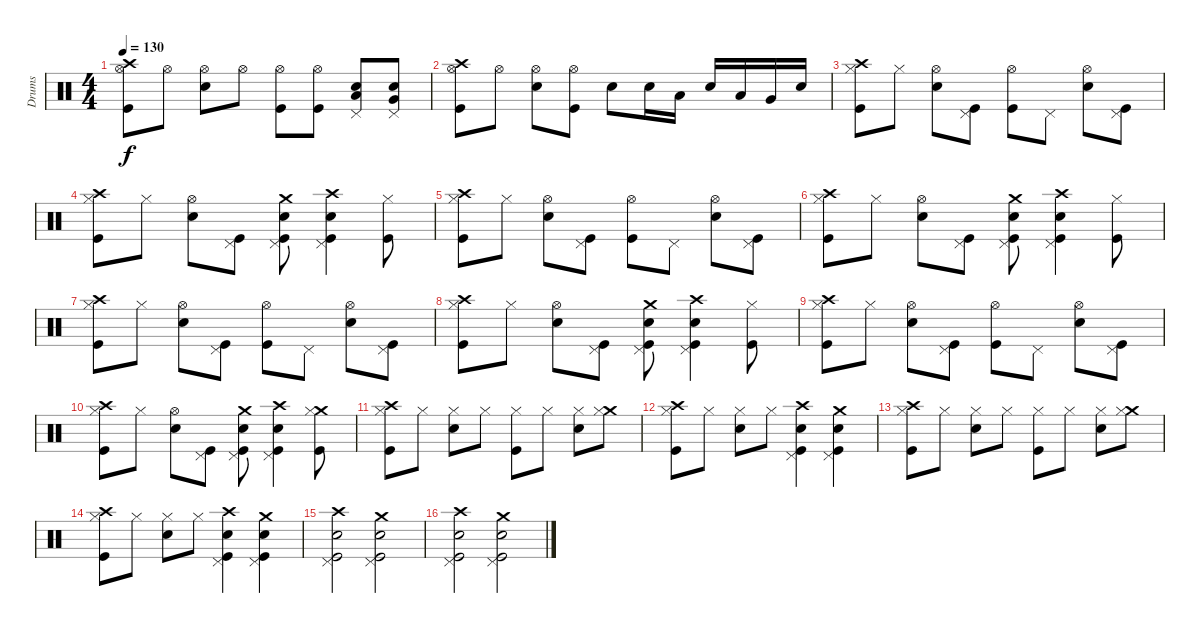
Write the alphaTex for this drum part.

\track ("Drums" "Drums") {instrument percussion}
\staff {score}
\articulation defaults
\ts (4 4)
\tempo 130
\clef neutral
\ks c
("Crash high (hit)" "Hi-Hat (open)" "Kick (hit)").8{dy f} "Hi-Hat (open)".8 ("Hi-Hat (open)" "Electric Snare (hit)").8 "Hi-Hat (open)".8 ("Hi-Hat (open)" "Kick (hit)").8 ("Hi-Hat (open)" "Kick (hit)").8 ("Pedal Hi-Hat (hit)" "Electric Snare (hit)" "Low Floor Tom (hit)").8 ("Pedal Hi-Hat (hit)" "Electric Snare (hit)" "Very Low Tom (hit)").8 |
("Crash high (hit)" "Hi-Hat (open)" "Kick (hit)").8 "Hi-Hat (open)".8 ("Hi-Hat (open)" "Electric Snare (hit)").8 ("Hi-Hat (open)" "Kick (hit)").8 "Electric Snare (hit)".8 "Electric Snare (hit)".16 "Low Floor Tom (hit)".16 "Electric Snare (hit)".16 "Low Floor Tom (hit)".16 "Very Low Tom (hit)".16 "Electric Snare (hit)".16 |
("Crash high (hit)" "Hi-Hat (closed)" "Kick (hit)").8 "Hi-Hat (closed)".8 ("Hi-Hat (open)" "Electric Snare (hit)").8 ("Pedal Hi-Hat (hit)" "Kick (hit)").8 ("Hi-Hat (open)" "Kick (hit)").8 "Pedal Hi-Hat (hit)".8 ("Hi-Hat (open)" "Electric Snare (hit)").8 ("Pedal Hi-Hat (hit)" "Kick (hit)").8 |
("Crash high (hit)" "Hi-Hat (closed)" "Kick (hit)").8 "Hi-Hat (closed)".8 ("Hi-Hat (open)" "Electric Snare (hit)").8 ("Pedal Hi-Hat (hit)" "Kick (hit)").8 ("Crash medium (hit)" "Pedal Hi-Hat (hit)" "Electric Snare (hit)" "Kick (hit)").8 ("Crash high (hit)" "Pedal Hi-Hat (hit)" "Electric Snare (hit)" "Kick (hit)").4 ("Hi-Hat (closed)" "Kick (hit)").8 |
("Crash high (hit)" "Hi-Hat (closed)" "Kick (hit)").8 "Hi-Hat (closed)".8 ("Hi-Hat (open)" "Electric Snare (hit)").8 ("Pedal Hi-Hat (hit)" "Kick (hit)").8 ("Hi-Hat (open)" "Kick (hit)").8 "Pedal Hi-Hat (hit)".8 ("Hi-Hat (open)" "Electric Snare (hit)").8 ("Pedal Hi-Hat (hit)" "Kick (hit)").8 |
("Crash high (hit)" "Hi-Hat (closed)" "Kick (hit)").8 "Hi-Hat (closed)".8 ("Hi-Hat (open)" "Electric Snare (hit)").8 ("Pedal Hi-Hat (hit)" "Kick (hit)").8 ("Crash medium (hit)" "Pedal Hi-Hat (hit)" "Electric Snare (hit)" "Kick (hit)").8 ("Crash high (hit)" "Pedal Hi-Hat (hit)" "Electric Snare (hit)" "Kick (hit)").4 ("Hi-Hat (closed)" "Kick (hit)").8 |
("Crash high (hit)" "Hi-Hat (closed)" "Kick (hit)").8 "Hi-Hat (closed)".8 ("Hi-Hat (open)" "Electric Snare (hit)").8 ("Pedal Hi-Hat (hit)" "Kick (hit)").8 ("Hi-Hat (open)" "Kick (hit)").8 "Pedal Hi-Hat (hit)".8 ("Hi-Hat (open)" "Electric Snare (hit)").8 ("Pedal Hi-Hat (hit)" "Kick (hit)").8 |
("Crash high (hit)" "Hi-Hat (closed)" "Kick (hit)").8 "Hi-Hat (closed)".8 ("Hi-Hat (open)" "Electric Snare (hit)").8 ("Pedal Hi-Hat (hit)" "Kick (hit)").8 ("Crash medium (hit)" "Pedal Hi-Hat (hit)" "Electric Snare (hit)" "Kick (hit)").8 ("Crash high (hit)" "Pedal Hi-Hat (hit)" "Electric Snare (hit)" "Kick (hit)").4 ("Hi-Hat (closed)" "Kick (hit)").8 |
("Crash high (hit)" "Hi-Hat (closed)" "Kick (hit)").8 "Hi-Hat (closed)".8 ("Hi-Hat (open)" "Electric Snare (hit)").8 ("Pedal Hi-Hat (hit)" "Kick (hit)").8 ("Hi-Hat (open)" "Kick (hit)").8 "Pedal Hi-Hat (hit)".8 ("Hi-Hat (open)" "Electric Snare (hit)").8 ("Pedal Hi-Hat (hit)" "Kick (hit)").8 |
("Crash high (hit)" "Hi-Hat (closed)" "Kick (hit)").8 "Hi-Hat (closed)".8 ("Hi-Hat (open)" "Electric Snare (hit)").8 ("Pedal Hi-Hat (hit)" "Kick (hit)").8 ("Crash medium (hit)" "Pedal Hi-Hat (hit)" "Electric Snare (hit)" "Kick (hit)").8 ("Crash high (hit)" "Pedal Hi-Hat (hit)" "Electric Snare (hit)" "Kick (hit)").4 ("Crash medium (hit)" "Hi-Hat (closed)" "Kick (hit)").8 |
("Crash high (hit)" "Hi-Hat (closed)" "Kick (hit)").8 "Hi-Hat (closed)".8 ("Hi-Hat (closed)" "Electric Snare (hit)").8 "Hi-Hat (closed)".8 ("Hi-Hat (closed)" "Kick (hit)").8 "Hi-Hat (closed)".8 ("Hi-Hat (closed)" "Electric Snare (hit)").8 ("Crash medium (hit)" "Hi-Hat (closed)").8 |
("Crash high (hit)" "Hi-Hat (closed)" "Kick (hit)").8 "Hi-Hat (closed)".8 ("Hi-Hat (closed)" "Electric Snare (hit)").8 "Hi-Hat (closed)".8 ("Crash high (hit)" "Pedal Hi-Hat (hit)" "Electric Snare (hit)" "Kick (hit)").4 ("Crash medium (hit)" "Pedal Hi-Hat (hit)" "Electric Snare (hit)" "Kick (hit)").4 |
("Crash high (hit)" "Hi-Hat (closed)" "Kick (hit)").8 "Hi-Hat (closed)".8 ("Hi-Hat (closed)" "Electric Snare (hit)").8 "Hi-Hat (closed)".8 ("Hi-Hat (closed)" "Kick (hit)").8 "Hi-Hat (closed)".8 ("Hi-Hat (closed)" "Electric Snare (hit)").8 ("Crash medium (hit)" "Hi-Hat (closed)").8 |
("Crash high (hit)" "Hi-Hat (closed)" "Kick (hit)").8 "Hi-Hat (closed)".8 ("Hi-Hat (closed)" "Electric Snare (hit)").8 "Hi-Hat (closed)".8 ("Crash high (hit)" "Pedal Hi-Hat (hit)" "Electric Snare (hit)" "Kick (hit)").4 ("Crash medium (hit)" "Pedal Hi-Hat (hit)" "Electric Snare (hit)" "Kick (hit)").4 |
("Crash high (hit)" "Pedal Hi-Hat (hit)" "Electric Snare (hit)" "Kick (hit)").2 ("Crash medium (hit)" "Pedal Hi-Hat (hit)" "Electric Snare (hit)" "Kick (hit)").2 |
("Crash high (hit)" "Pedal Hi-Hat (hit)" "Electric Snare (hit)" "Kick (hit)").2 ("Crash medium (hit)" "Pedal Hi-Hat (hit)" "Electric Snare (hit)" "Kick (hit)").2
